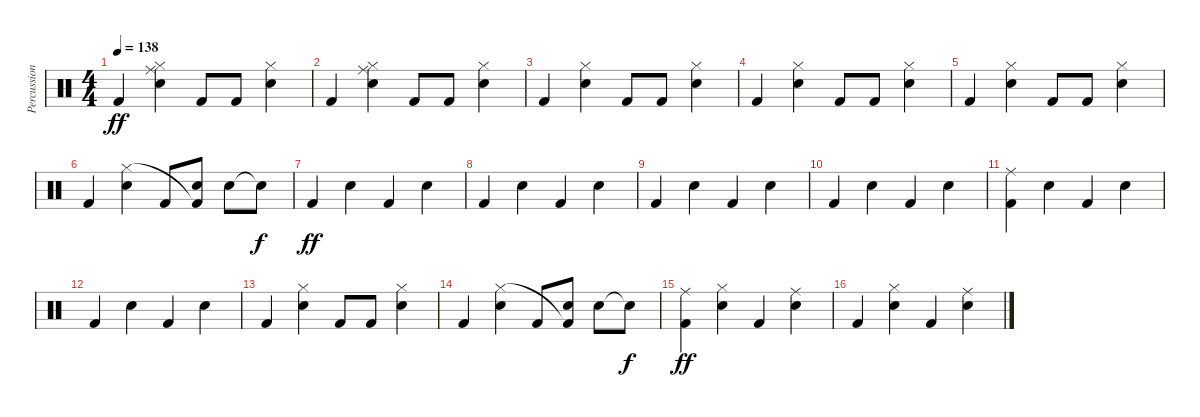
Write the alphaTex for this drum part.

\track ("Percussion" "Percussion") {instrument percussion}
\staff {score}
\articulation defaults
\ts (4 4)
\tempo 138
\clef neutral
\ks c "Kick (hit) 2".4{dy ff}
("Ride (middle)" "Snare (hit) 2" "Hi-Hat (closed)").4 "Kick (hit) 2".8 "Kick (hit) 2".8 ("Snare (hit) 2" "Hi-Hat (closed)").4 |
"Kick (hit) 2".4 ("Ride (middle)" "Snare (hit) 2" "Hi-Hat (closed)").4 "Kick (hit) 2".8 "Kick (hit) 2".8 ("Snare (hit) 2" "Hi-Hat (closed)").4 |
"Kick (hit) 2".4 ("Snare (hit) 2" "Hi-Hat (closed)").4 "Kick (hit) 2".8 "Kick (hit) 2".8 ("Snare (hit) 2" "Hi-Hat (closed)").4 |
"Kick (hit) 2".4 ("Snare (hit) 2" "Hi-Hat (closed)").4 "Kick (hit) 2".8 "Kick (hit) 2".8 ("Snare (hit) 2" "Hi-Hat (closed)").4 |
"Kick (hit) 2".4 ("Snare (hit) 2" "Hi-Hat (closed)").4 "Kick (hit) 2".8 "Kick (hit) 2".8 ("Snare (hit) 2" "Hi-Hat (closed)").4 |
"Kick (hit) 2".4 ("Snare (hit) 2" "Hi-Hat (closed)").4 "Kick (hit) 2".8 ("Electric Snare (hit)" "Kick (hit) 2"{t}).8 "Electric Snare (hit)".8 "Electric Snare (hit)"{t}.8{dy f} |
"Kick (hit) 2".4{dy ff} "Snare (hit) 2".4 "Kick (hit) 2".4 "Snare (hit) 2".4 |
"Kick (hit) 2".4 "Snare (hit) 2".4 "Kick (hit) 2".4 "Snare (hit) 2".4 |
"Kick (hit) 2".4 "Snare (hit) 2".4 "Kick (hit) 2".4 "Snare (hit) 2".4 |
"Kick (hit) 2".4 "Snare (hit) 2".4 "Kick (hit) 2".4 "Snare (hit) 2".4 |
("Ride (middle)" "Kick (hit) 2").4 "Snare (hit) 2".4 "Kick (hit) 2".4 "Snare (hit) 2".4 |
"Kick (hit) 2".4 "Snare (hit) 2".4 "Kick (hit) 2".4 "Snare (hit) 2".4 |
"Kick (hit) 2".4 ("Snare (hit) 2" "Hi-Hat (closed)").4 "Kick (hit) 2".8 "Kick (hit) 2".8 ("Snare (hit) 2" "Hi-Hat (closed)").4 |
"Kick (hit) 2".4 ("Snare (hit) 2" "Hi-Hat (closed)").4 "Kick (hit) 2".8 ("Electric Snare (hit)" "Kick (hit) 2"{t}).8 "Electric Snare (hit)".8 "Electric Snare (hit)"{t}.8{dy f} |
("Ride (middle)" "Kick (hit) 2").4{dy ff} ("Snare (hit) 2" "Hi-Hat (closed)").4 "Kick (hit) 2".4 ("Ride (middle)" "Snare (hit) 2").4 |
"Kick (hit) 2".4 ("Snare (hit) 2" "Hi-Hat (closed)").4 "Kick (hit) 2".4 ("Ride (middle)" "Snare (hit) 2").4
